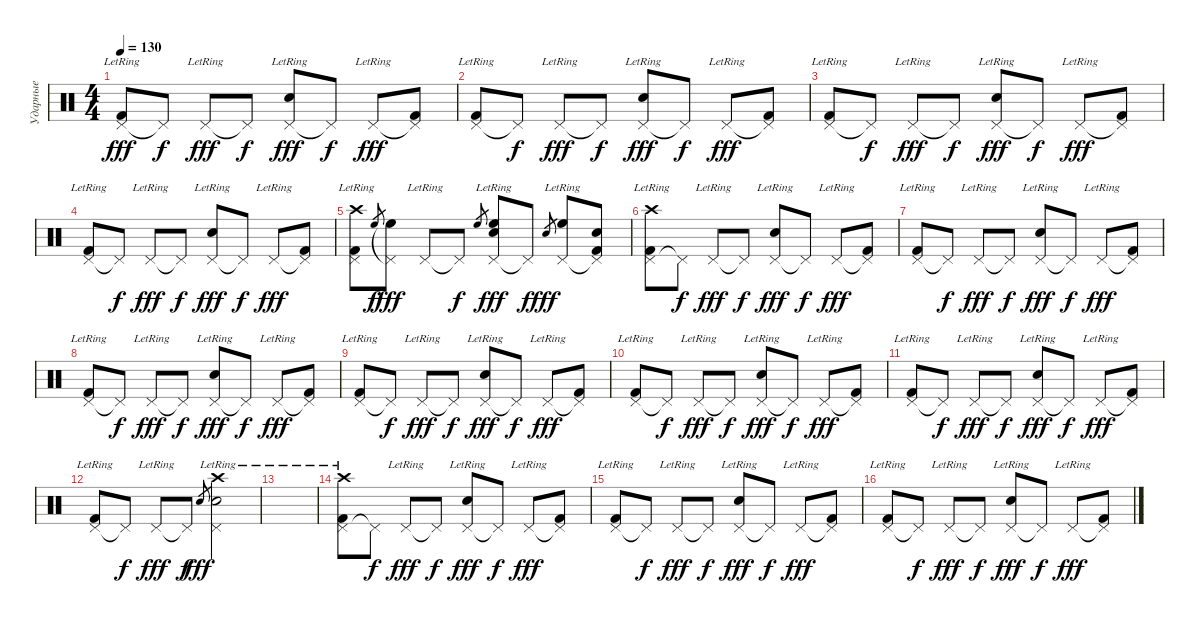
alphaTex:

\track ("Ударные" "Ударные") {instrument percussion}
\staff {score}
\articulation defaults
\ts (4 4)
\tempo 130
\clef neutral
\ks c
("Pedal Hi-Hat (hit)"{lr} "Kick (hit) 2").8{dy fff} "Pedal Hi-Hat (hit)"{t}.8{dy f} "Pedal Hi-Hat (hit)"{lr}.8{dy fff} "Pedal Hi-Hat (hit)"{t}.8{dy f} ("Pedal Hi-Hat (hit)"{lr} "Snare (hit) 2").8{dy fff} "Pedal Hi-Hat (hit)"{t}.8{dy f} "Pedal Hi-Hat (hit)"{lr}.8{dy fff} ("Pedal Hi-Hat (hit)"{t} "Kick (hit) 2").8 |
("Pedal Hi-Hat (hit)"{lr} "Kick (hit) 2").8 "Pedal Hi-Hat (hit)"{t}.8{dy f} "Pedal Hi-Hat (hit)"{lr}.8{dy fff} "Pedal Hi-Hat (hit)"{t}.8{dy f} ("Pedal Hi-Hat (hit)"{lr} "Snare (hit) 2").8{dy fff} "Pedal Hi-Hat (hit)"{t}.8{dy f} "Pedal Hi-Hat (hit)"{lr}.8{dy fff} ("Pedal Hi-Hat (hit)"{t} "Kick (hit) 2").8 |
("Pedal Hi-Hat (hit)"{lr} "Kick (hit) 2").8 "Pedal Hi-Hat (hit)"{t}.8{dy f} "Pedal Hi-Hat (hit)"{lr}.8{dy fff} "Pedal Hi-Hat (hit)"{t}.8{dy f} ("Pedal Hi-Hat (hit)"{lr} "Snare (hit) 2").8{dy fff} "Pedal Hi-Hat (hit)"{t}.8{dy f} "Pedal Hi-Hat (hit)"{lr}.8{dy fff} ("Pedal Hi-Hat (hit)"{t} "Kick (hit) 2").8 |
("Pedal Hi-Hat (hit)"{lr} "Kick (hit) 2").8 "Pedal Hi-Hat (hit)"{t}.8{dy f} "Pedal Hi-Hat (hit)"{lr}.8{dy fff} "Pedal Hi-Hat (hit)"{t}.8{dy f} ("Pedal Hi-Hat (hit)"{lr} "Snare (hit) 2").8{dy fff} "Pedal Hi-Hat (hit)"{t}.8{dy f} "Pedal Hi-Hat (hit)"{lr}.8{dy fff} ("Pedal Hi-Hat (hit)"{t} "Kick (hit) 2").8 |
("Pedal Hi-Hat (hit)"{lr} "Kick (hit) 2" "Crash high (hit)"{lr}).8 "High Floor Tom (hit)".8{gr dy f} ("Pedal Hi-Hat (hit)"{t} "High Floor Tom (hit)").8{dy fff} "Pedal Hi-Hat (hit)"{lr}.8 "Pedal Hi-Hat (hit)"{t}.8{dy f} "High Floor Tom (hit)".8{gr} ("Pedal Hi-Hat (hit)"{lr} "Snare (hit) 2" "High Floor Tom (hit)").8{dy fff} "Pedal Hi-Hat (hit)"{t}.8{dy f} "Snare (hit) 2".8{gr dy fff} ("Pedal Hi-Hat (hit)"{lr} "High Floor Tom (hit)").8 ("Pedal Hi-Hat (hit)"{t} "Kick (hit) 2" "Snare (hit) 2").8 |
("Pedal Hi-Hat (hit)"{lr} "Kick (hit) 2" "Crash high (hit)"{lr}).8 "Pedal Hi-Hat (hit)"{t}.8{dy f} "Pedal Hi-Hat (hit)"{lr}.8{dy fff} "Pedal Hi-Hat (hit)"{t}.8{dy f} ("Pedal Hi-Hat (hit)"{lr} "Snare (hit) 2").8{dy fff} "Pedal Hi-Hat (hit)"{t}.8{dy f} "Pedal Hi-Hat (hit)"{lr}.8{dy fff} ("Pedal Hi-Hat (hit)"{t} "Kick (hit) 2").8 |
("Pedal Hi-Hat (hit)"{lr} "Kick (hit) 2").8 "Pedal Hi-Hat (hit)"{t}.8{dy f} "Pedal Hi-Hat (hit)"{lr}.8{dy fff} "Pedal Hi-Hat (hit)"{t}.8{dy f} ("Pedal Hi-Hat (hit)"{lr} "Snare (hit) 2").8{dy fff} "Pedal Hi-Hat (hit)"{t}.8{dy f} "Pedal Hi-Hat (hit)"{lr}.8{dy fff} ("Pedal Hi-Hat (hit)"{t} "Kick (hit) 2").8 |
("Pedal Hi-Hat (hit)"{lr} "Kick (hit) 2").8 "Pedal Hi-Hat (hit)"{t}.8{dy f} "Pedal Hi-Hat (hit)"{lr}.8{dy fff} "Pedal Hi-Hat (hit)"{t}.8{dy f} ("Pedal Hi-Hat (hit)"{lr} "Snare (hit) 2").8{dy fff} "Pedal Hi-Hat (hit)"{t}.8{dy f} "Pedal Hi-Hat (hit)"{lr}.8{dy fff} ("Pedal Hi-Hat (hit)"{t} "Kick (hit) 2").8 |
("Pedal Hi-Hat (hit)"{lr} "Kick (hit) 2").8 "Pedal Hi-Hat (hit)"{t}.8{dy f} "Pedal Hi-Hat (hit)"{lr}.8{dy fff} "Pedal Hi-Hat (hit)"{t}.8{dy f} ("Pedal Hi-Hat (hit)"{lr} "Snare (hit) 2").8{dy fff} "Pedal Hi-Hat (hit)"{t}.8{dy f} "Pedal Hi-Hat (hit)"{lr}.8{dy fff} ("Pedal Hi-Hat (hit)"{t} "Kick (hit) 2").8 |
("Pedal Hi-Hat (hit)"{lr} "Kick (hit) 2").8 "Pedal Hi-Hat (hit)"{t}.8{dy f} "Pedal Hi-Hat (hit)"{lr}.8{dy fff} "Pedal Hi-Hat (hit)"{t}.8{dy f} ("Pedal Hi-Hat (hit)"{lr} "Snare (hit) 2").8{dy fff} "Pedal Hi-Hat (hit)"{t}.8{dy f} "Pedal Hi-Hat (hit)"{lr}.8{dy fff} ("Pedal Hi-Hat (hit)"{t} "Kick (hit) 2").8 |
("Pedal Hi-Hat (hit)"{lr} "Kick (hit) 2").8 "Pedal Hi-Hat (hit)"{t}.8{dy f} "Pedal Hi-Hat (hit)"{lr}.8{dy fff} "Pedal Hi-Hat (hit)"{t}.8{dy f} ("Pedal Hi-Hat (hit)"{lr} "Snare (hit) 2").8{dy fff} "Pedal Hi-Hat (hit)"{t}.8{dy f} "Pedal Hi-Hat (hit)"{lr}.8{dy fff} ("Pedal Hi-Hat (hit)"{t} "Kick (hit) 2").8 |
("Pedal Hi-Hat (hit)"{lr} "Kick (hit) 2").8 "Pedal Hi-Hat (hit)"{t}.8{dy f} "Pedal Hi-Hat (hit)"{lr}.8{dy fff} "Pedal Hi-Hat (hit)"{t}.8{dy f} "Snare (hit) 2".8{gr dy fff} ("Pedal Hi-Hat (hit)"{lr} "Snare (hit) 2" "Crash high (hit)"{lr}).2 |
|
("Pedal Hi-Hat (hit)"{lr} "Kick (hit) 2" "Crash high (hit)"{lr}).8 "Pedal Hi-Hat (hit)"{t}.8{dy f} "Pedal Hi-Hat (hit)"{lr}.8{dy fff} "Pedal Hi-Hat (hit)"{t}.8{dy f} ("Pedal Hi-Hat (hit)"{lr} "Snare (hit) 2").8{dy fff} "Pedal Hi-Hat (hit)"{t}.8{dy f} "Pedal Hi-Hat (hit)"{lr}.8{dy fff} ("Pedal Hi-Hat (hit)"{t} "Kick (hit) 2").8 |
("Pedal Hi-Hat (hit)"{lr} "Kick (hit) 2").8 "Pedal Hi-Hat (hit)"{t}.8{dy f} "Pedal Hi-Hat (hit)"{lr}.8{dy fff} "Pedal Hi-Hat (hit)"{t}.8{dy f} ("Pedal Hi-Hat (hit)"{lr} "Snare (hit) 2").8{dy fff} "Pedal Hi-Hat (hit)"{t}.8{dy f} "Pedal Hi-Hat (hit)"{lr}.8{dy fff} ("Pedal Hi-Hat (hit)"{t} "Kick (hit) 2").8 |
("Pedal Hi-Hat (hit)"{lr} "Kick (hit) 2").8 "Pedal Hi-Hat (hit)"{t}.8{dy f} "Pedal Hi-Hat (hit)"{lr}.8{dy fff} "Pedal Hi-Hat (hit)"{t}.8{dy f} ("Pedal Hi-Hat (hit)"{lr} "Snare (hit) 2").8{dy fff} "Pedal Hi-Hat (hit)"{t}.8{dy f} "Pedal Hi-Hat (hit)"{lr}.8{dy fff} ("Pedal Hi-Hat (hit)"{t} "Kick (hit) 2").8
